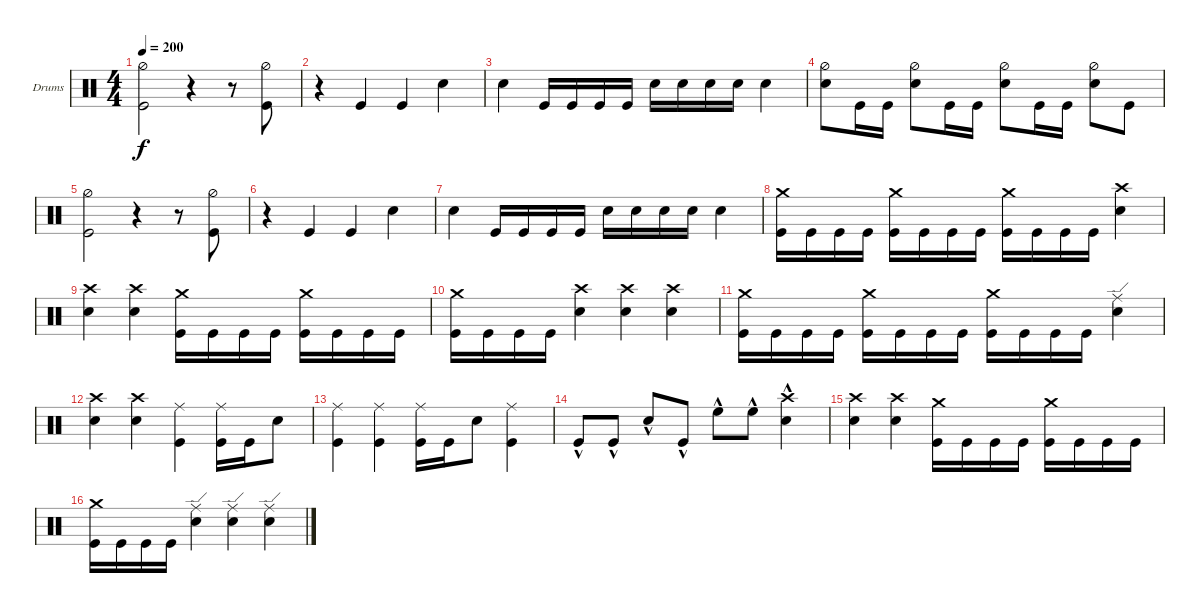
\bracketExtendMode groupsimilarinstruments
\firstSystemTrackNameOrientation horizontal
\otherSystemsTrackNameOrientation horizontal
\track ("Emile Bardou" "Drums") {instrument percussion}
\staff {score}
\articulation defaults
\ts (4 4)
\tempo 200
\clef neutral
\ks c
("Hi-Hat (half)" "Kick (hit)").2{dy f} r.4 r.8 ("Kick (hit)" "Hi-Hat (half)").8 |
r.4 "Kick (hit)".4 "Kick (hit)".4 "Snare (hit) 2".4 |
"Snare (hit) 2".4 "Kick (hit)".16 "Kick (hit)".16 "Kick (hit)".16 "Kick (hit)".16 "Snare (hit) 2".16 "Snare (hit) 2".16 "Snare (hit) 2".16 "Snare (hit) 2".16 "Snare (hit) 2".4 |
("Hi-Hat (half)" "Snare (hit) 2").8 "Kick (hit)".16 "Kick (hit)".16 ("Hi-Hat (half)" "Snare (hit) 2").8 "Kick (hit)".16 "Kick (hit)".16 ("Hi-Hat (half)" "Snare (hit) 2").8 "Kick (hit)".16 "Kick (hit)".16 ("Hi-Hat (half)" "Snare (hit) 2").8 "Kick (hit)".8 |
("Hi-Hat (half)" "Kick (hit)").2 r.4 r.8 ("Kick (hit)" "Hi-Hat (half)").8 |
r.4 "Kick (hit)".4 "Kick (hit)".4 "Snare (hit) 2".4 |
"Snare (hit) 2".4 "Kick (hit)".16 "Kick (hit)".16 "Kick (hit)".16 "Kick (hit)".16 "Snare (hit) 2".16 "Snare (hit) 2".16 "Snare (hit) 2".16 "Snare (hit) 2".16 "Snare (hit) 2".4 |
("Crash medium (hit)" "Kick (hit)").16 "Kick (hit)".16 "Kick (hit)".16 "Kick (hit)".16 ("Crash medium (hit)" "Kick (hit)").16 "Kick (hit)".16 "Kick (hit)".16 "Kick (hit)".16 ("Crash medium (hit)" "Kick (hit)").16 "Kick (hit)".16 "Kick (hit)".16 "Kick (hit)".16 ("Crash high (hit)" "Snare (hit) 2").4 |
("Crash high (hit)" "Snare (hit) 2").4 ("Crash high (hit)" "Snare (hit) 2").4 ("Crash medium (hit)" "Kick (hit)").16 "Kick (hit)".16 "Kick (hit)".16 "Kick (hit)".16 ("Crash medium (hit)" "Kick (hit)").16 "Kick (hit)".16 "Kick (hit)".16 "Kick (hit)".16 |
("Crash medium (hit)" "Kick (hit)").16 "Kick (hit)".16 "Kick (hit)".16 "Kick (hit)".16 ("Snare (hit) 2" "Crash high (hit)").4 ("Crash high (hit)" "Snare (hit) 2").4 ("Snare (hit) 2" "Crash high (hit)").4 |
("Crash medium (hit)" "Kick (hit)").16 "Kick (hit)".16 "Kick (hit)".16 "Kick (hit)".16 ("Crash medium (hit)" "Kick (hit)").16 "Kick (hit)".16 "Kick (hit)".16 "Kick (hit)".16 ("Crash medium (hit)" "Kick (hit)").16 "Kick (hit)".16 "Kick (hit)".16 "Kick (hit)".16 ("Ride (edge)" "Snare (hit) 2").4 |
("Snare (hit) 2" "Crash high (hit)").4 ("Snare (hit) 2" "Crash high (hit)").4 ("Kick (hit)" "Ride (middle)").4 ("Kick (hit)" "Ride (middle)").16 "Kick (hit)".16 "Snare (hit) 2".8 |
("Kick (hit)" "Ride (middle)").4 ("Ride (middle)" "Kick (hit)").4 ("Kick (hit)" "Ride (middle)").16 "Kick (hit)".16 "Snare (hit) 2".8 ("Kick (hit)" "Ride (middle)").4 |
"Kick (hit)"{hac}.8 "Kick (hit)"{hac}.8 "Snare (hit) 2"{hac}.8 "Kick (hit)"{hac}.8 "High Floor Tom (hit)"{hac}.8 "High Floor Tom (hit)"{hac}.8 ("Snare (hit) 2"{hac} "Crash high (hit)"{hac}).4 |
("Crash high (hit)" "Snare (hit) 2").4 ("Crash high (hit)" "Snare (hit) 2").4 ("Crash medium (hit)" "Kick (hit)").16 "Kick (hit)".16 "Kick (hit)".16 "Kick (hit)".16 ("Crash medium (hit)" "Kick (hit)").16 "Kick (hit)".16 "Kick (hit)".16 "Kick (hit)".16 |
("Crash medium (hit)" "Kick (hit)").16 "Kick (hit)".16 "Kick (hit)".16 "Kick (hit)".16 ("Ride (edge)" "Snare (hit) 2").4 ("Ride (edge)" "Snare (hit) 2").4 ("Ride (edge)" "Snare (hit) 2").4
